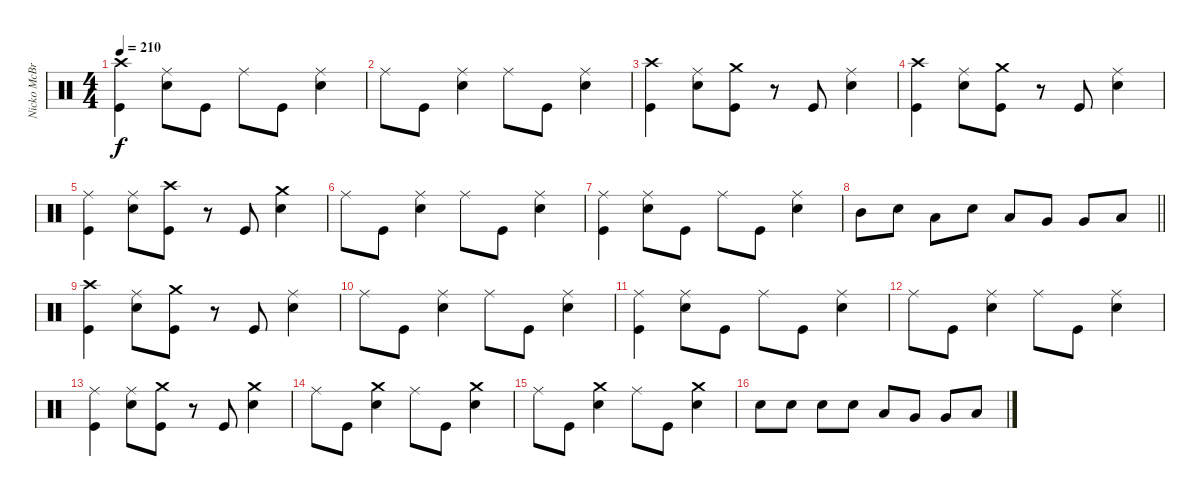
\track ("Nicko McBrain" "Nicko McBr") {instrument percussion}
\staff {score}
\articulation defaults
\ts (4 4)
\tempo 210
\clef neutral
\ks c
("Crash high (hit)" "Kick (hit)").4{dy f} ("Ride (middle)" "Snare (hit) 2").8 "Kick (hit)".8 "Ride (middle)".8 "Kick (hit)".8 ("Ride (middle)" "Snare (hit) 2").4 |
"Ride (middle)".8 "Kick (hit)".8 ("Ride (middle)" "Snare (hit) 2").4 "Ride (middle)".8 "Kick (hit)".8 ("Ride (middle)" "Snare (hit) 2").4 |
("Crash high (hit)" "Kick (hit)").4 ("Ride (middle)" "Snare (hit) 2").8 ("Crash medium (hit)" "Kick (hit)").8 r.8 "Kick (hit)".8 ("Ride (middle)" "Snare (hit) 2").4 |
("Crash high (hit)" "Kick (hit)").4 ("Ride (middle)" "Snare (hit) 2").8 ("Crash medium (hit)" "Kick (hit)").8 r.8 "Kick (hit)".8 ("Ride (middle)" "Snare (hit) 2").4 |
("Ride (middle)" "Kick (hit)").4 ("Ride (middle)" "Snare (hit) 2").8 ("Crash high (hit)" "Kick (hit)").8 r.8 "Kick (hit)".8 ("Crash medium (hit)" "Snare (hit) 2").4 |
"Ride (middle)".8 "Kick (hit)".8 ("Ride (middle)" "Snare (hit) 2").4 "Ride (middle)".8 "Kick (hit)".8 ("Ride (middle)" "Snare (hit) 2").4 |
("Ride (middle)" "Kick (hit)").4 ("Ride (middle)" "Snare (hit) 2").8 "Kick (hit)".8 "Ride (middle)".8 "Kick (hit)".8 ("Ride (middle)" "Snare (hit) 2").4 |
\barLineRight lightlight "Mid Tom (hit)".8 "Snare (hit) 2".8 "Low Tom (hit)".8 "Snare (hit) 2".8 "Low Tom (hit)".8 "Very Low Tom (hit)".8 "Very Low Tom (hit)".8 "Low Floor Tom (hit)".8
|
("Crash high (hit)" "Kick (hit)").4 ("Ride (middle)" "Snare (hit) 2").8 ("Crash medium (hit)" "Kick (hit)").8 r.8 "Kick (hit)".8 ("Ride (middle)" "Snare (hit) 2").4 |
"Ride (middle)".8 "Kick (hit)".8 ("Ride (middle)" "Snare (hit) 2").4 "Ride (middle)".8 "Kick (hit)".8 ("Ride (middle)" "Snare (hit) 2").4 |
("Ride (middle)" "Kick (hit)").4 ("Ride (middle)" "Snare (hit) 2").8 "Kick (hit)".8 "Ride (middle)".8 "Kick (hit)".8 ("Ride (middle)" "Snare (hit) 2").4 |
"Ride (middle)".8 "Kick (hit)".8 ("Ride (middle)" "Snare (hit) 2").4 "Ride (middle)".8 "Kick (hit)".8 ("Ride (middle)" "Snare (hit) 2").4 |
("Ride (middle)" "Kick (hit)").4 ("Ride (middle)" "Snare (hit) 2").8 ("Crash medium (hit)" "Kick (hit)").8 r.8 "Kick (hit)".8 ("Crash medium (hit)" "Snare (hit) 2").4 |
"Ride (middle)".8 "Kick (hit)".8 ("Crash medium (hit)" "Snare (hit) 2").4 "Ride (middle)".8 "Kick (hit)".8 ("Crash medium (hit)" "Snare (hit) 2").4 |
"Ride (middle)".8 "Kick (hit)".8 ("Crash medium (hit)" "Snare (hit) 2").4 "Ride (middle)".8 "Kick (hit)".8 ("Crash medium (hit)" "Snare (hit) 2").4 |
"Snare (hit) 2".8 "Snare (hit) 2".8 "Snare (hit) 2".8 "Snare (hit) 2".8 "Low Tom (hit)".8 "Very Low Tom (hit)".8 "Very Low Tom (hit)".8 "Low Floor Tom (hit)".8
